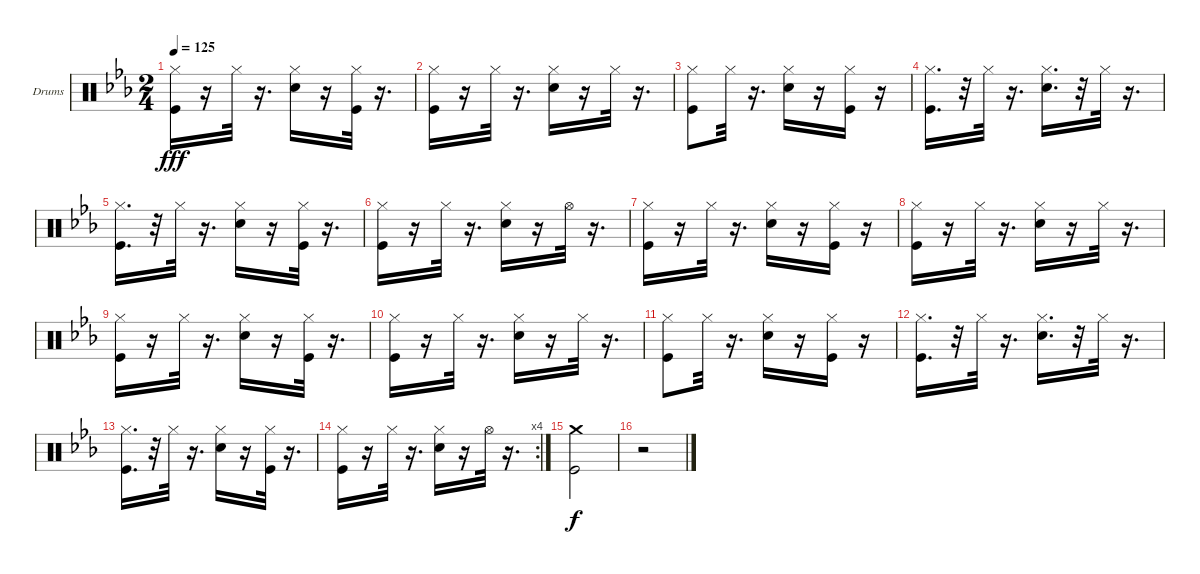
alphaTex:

\bracketExtendMode groupsimilarinstruments
\firstSystemTrackNameOrientation horizontal
\otherSystemsTrackNameOrientation horizontal
\track ("Ударные" "Drums") {instrument percussion}
\staff {score}
\articulation defaults
\ts (2 4)
\tempo 125
\clef neutral
\ks cminor
("Kick (hit)" "Hi-Hat (closed)").16{dy fff} r.16 "Hi-Hat (closed)".32 r.16{d} ("Snare (hit) 2" "Hi-Hat (closed)").16 r.16 ("Kick (hit)" "Hi-Hat (closed)").32 r.16{d} |
("Kick (hit)" "Hi-Hat (closed)").16 r.16 "Hi-Hat (closed)".32 r.16{d} ("Snare (hit) 2" "Hi-Hat (closed)").16 r.16 "Hi-Hat (closed)".32 r.16{d} |
("Kick (hit)" "Hi-Hat (closed)").8 "Hi-Hat (closed)".32 r.16{d} ("Snare (hit) 2" "Hi-Hat (closed)").16 r.16 ("Kick (hit)" "Hi-Hat (closed)").16 r.16 |
("Kick (hit)" "Hi-Hat (closed)").16{d} r.32 "Hi-Hat (closed)".32 r.16{d} ("Snare (hit) 2" "Hi-Hat (closed)").16{d} r.32 "Hi-Hat (closed)".32 r.16{d} |
("Kick (hit)" "Hi-Hat (closed)").16{d} r.32 "Hi-Hat (closed)".32 r.16{d} ("Snare (hit) 2" "Hi-Hat (closed)").16 r.16 ("Kick (hit)" "Hi-Hat (closed)").32 r.16{d} |
("Kick (hit)" "Hi-Hat (closed)").16 r.16 "Hi-Hat (closed)".32 r.16{d} ("Snare (hit) 2" "Hi-Hat (closed)").16 r.16 "Hi-Hat (open)".32 r.16{d} |
("Kick (hit)" "Hi-Hat (closed)").16 r.16 "Hi-Hat (closed)".32 r.16{d} ("Snare (hit) 2" "Hi-Hat (closed)").16 r.16 ("Kick (hit)" "Hi-Hat (closed)").16 r.16 |
("Kick (hit)" "Hi-Hat (closed)").16 r.16 "Hi-Hat (closed)".32 r.16{d} ("Snare (hit) 2" "Hi-Hat (closed)").16 r.16 "Hi-Hat (closed)".32 r.16{d} |
("Kick (hit)" "Hi-Hat (closed)").16 r.16 "Hi-Hat (closed)".32 r.16{d} ("Snare (hit) 2" "Hi-Hat (closed)").16 r.16 ("Kick (hit)" "Hi-Hat (closed)").32 r.16{d} |
("Kick (hit)" "Hi-Hat (closed)").16 r.16 "Hi-Hat (closed)".32 r.16{d} ("Snare (hit) 2" "Hi-Hat (closed)").16 r.16 "Hi-Hat (closed)".32 r.16{d} |
("Kick (hit)" "Hi-Hat (closed)").8 "Hi-Hat (closed)".32 r.16{d} ("Snare (hit) 2" "Hi-Hat (closed)").16 r.16 ("Kick (hit)" "Hi-Hat (closed)").16 r.16 |
("Kick (hit)" "Hi-Hat (closed)").16{d} r.32 "Hi-Hat (closed)".32 r.16{d} ("Snare (hit) 2" "Hi-Hat (closed)").16{d} r.32 "Hi-Hat (closed)".32 r.16{d} |
("Kick (hit)" "Hi-Hat (closed)").16{d} r.32 "Hi-Hat (closed)".32 r.16{d} ("Snare (hit) 2" "Hi-Hat (closed)").16 r.16 ("Kick (hit)" "Hi-Hat (closed)").32 r.16{d} |
\rc 4
("Kick (hit)" "Hi-Hat (closed)").16 r.16 "Hi-Hat (closed)".32 r.16{d} ("Snare (hit) 2" "Hi-Hat (closed)").16 r.16 "Hi-Hat (open)".32 r.16{d} |
("Kick (hit)" "Crash medium (hit)").2{dy f} |
r.2
